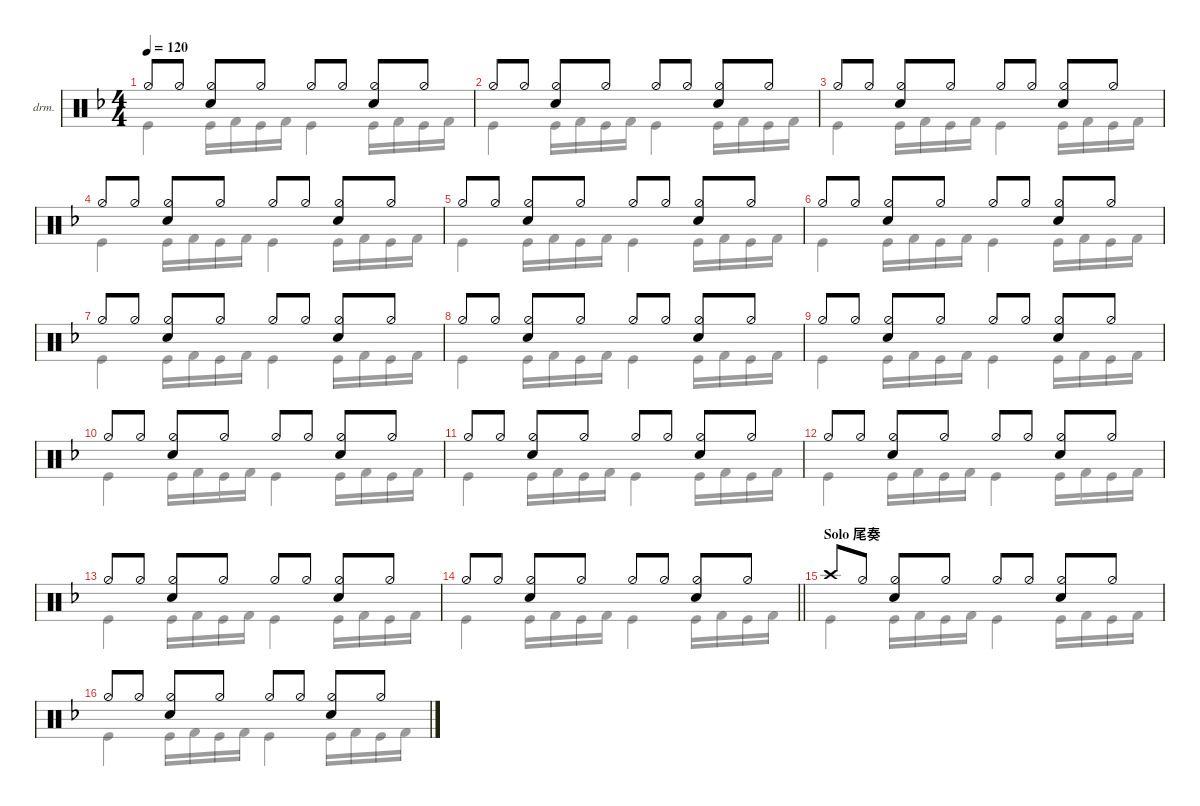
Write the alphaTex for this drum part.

\defaultSystemsLayout 4
\hideDynamics
\bracketExtendMode nobrackets
\firstSystemTrackNameOrientation horizontal
\track ("Drumkit" "drm.") {mute instrument percussion}
\staff {score}
\articulation defaults
\voice
\ts (4 4)
\tempo 120
\clef neutral
\ks dminor "Hi-Hat (half)"{acc forcenatural}.8{dy mf} "Hi-Hat (half)"{acc forcenatural}.8
("Hi-Hat (half)"{acc forcenatural} "Snare (hit) 2"{acc forcenatural}).8 "Hi-Hat (half)"{acc forcenatural}.8 "Hi-Hat (half)"{acc forcenatural}.8 "Hi-Hat (half)"{acc forcenatural}.8 ("Hi-Hat (half)"{acc forcenatural} "Snare (hit) 2"{acc forcenatural}).8 "Hi-Hat (half)"{acc forcenatural}.8 |
"Hi-Hat (half)"{acc forcenatural}.8 "Hi-Hat (half)"{acc forcenatural}.8 ("Hi-Hat (half)"{acc forcenatural} "Snare (hit) 2"{acc forcenatural}).8 "Hi-Hat (half)"{acc forcenatural}.8 "Hi-Hat (half)"{acc forcenatural}.8 "Hi-Hat (half)"{acc forcenatural}.8 ("Hi-Hat (half)"{acc forcenatural} "Snare (hit) 2"{acc forcenatural}).8 "Hi-Hat (half)"{acc forcenatural}.8 |
"Hi-Hat (half)"{acc forcenatural}.8 "Hi-Hat (half)"{acc forcenatural}.8 ("Hi-Hat (half)"{acc forcenatural} "Snare (hit) 2"{acc forcenatural}).8 "Hi-Hat (half)"{acc forcenatural}.8 "Hi-Hat (half)"{acc forcenatural}.8 "Hi-Hat (half)"{acc forcenatural}.8 ("Hi-Hat (half)"{acc forcenatural} "Snare (hit) 2"{acc forcenatural}).8 "Hi-Hat (half)"{acc forcenatural}.8 |
"Hi-Hat (half)"{acc forcenatural}.8 "Hi-Hat (half)"{acc forcenatural}.8 ("Hi-Hat (half)"{acc forcenatural} "Snare (hit) 2"{acc forcenatural}).8 "Hi-Hat (half)"{acc forcenatural}.8 "Hi-Hat (half)"{acc forcenatural}.8 "Hi-Hat (half)"{acc forcenatural}.8 ("Hi-Hat (half)"{acc forcenatural} "Snare (hit) 2"{acc forcenatural}).8 "Hi-Hat (half)"{acc forcenatural}.8 |
"Hi-Hat (half)"{acc forcenatural}.8 "Hi-Hat (half)"{acc forcenatural}.8 ("Hi-Hat (half)"{acc forcenatural} "Snare (hit) 2"{acc forcenatural}).8 "Hi-Hat (half)"{acc forcenatural}.8 "Hi-Hat (half)"{acc forcenatural}.8 "Hi-Hat (half)"{acc forcenatural}.8 ("Hi-Hat (half)"{acc forcenatural} "Snare (hit) 2"{acc forcenatural}).8 "Hi-Hat (half)"{acc forcenatural}.8 |
"Hi-Hat (half)"{acc forcenatural}.8 "Hi-Hat (half)"{acc forcenatural}.8 ("Hi-Hat (half)"{acc forcenatural} "Snare (hit) 2"{acc forcenatural}).8 "Hi-Hat (half)"{acc forcenatural}.8 "Hi-Hat (half)"{acc forcenatural}.8 "Hi-Hat (half)"{acc forcenatural}.8 ("Hi-Hat (half)"{acc forcenatural} "Snare (hit) 2"{acc forcenatural}).8 "Hi-Hat (half)"{acc forcenatural}.8 |
"Hi-Hat (half)"{acc forcenatural}.8 "Hi-Hat (half)"{acc forcenatural}.8 ("Hi-Hat (half)"{acc forcenatural} "Snare (hit) 2"{acc forcenatural}).8 "Hi-Hat (half)"{acc forcenatural}.8 "Hi-Hat (half)"{acc forcenatural}.8 "Hi-Hat (half)"{acc forcenatural}.8 ("Hi-Hat (half)"{acc forcenatural} "Snare (hit) 2"{acc forcenatural}).8 "Hi-Hat (half)"{acc forcenatural}.8 |
"Hi-Hat (half)"{acc forcenatural}.8 "Hi-Hat (half)"{acc forcenatural}.8 ("Hi-Hat (half)"{acc forcenatural} "Snare (hit) 2"{acc forcenatural}).8 "Hi-Hat (half)"{acc forcenatural}.8 "Hi-Hat (half)"{acc forcenatural}.8 "Hi-Hat (half)"{acc forcenatural}.8 ("Hi-Hat (half)"{acc forcenatural} "Snare (hit) 2"{acc forcenatural}).8 "Hi-Hat (half)"{acc forcenatural}.8 |
"Hi-Hat (half)"{acc forcenatural}.8 "Hi-Hat (half)"{acc forcenatural}.8 ("Hi-Hat (half)"{acc forcenatural} "Snare (hit) 2"{acc forcenatural}).8 "Hi-Hat (half)"{acc forcenatural}.8 "Hi-Hat (half)"{acc forcenatural}.8 "Hi-Hat (half)"{acc forcenatural}.8 ("Hi-Hat (half)"{acc forcenatural} "Snare (hit) 2"{acc forcenatural}).8 "Hi-Hat (half)"{acc forcenatural}.8 |
"Hi-Hat (half)"{acc forcenatural}.8 "Hi-Hat (half)"{acc forcenatural}.8 ("Hi-Hat (half)"{acc forcenatural} "Snare (hit) 2"{acc forcenatural}).8 "Hi-Hat (half)"{acc forcenatural}.8 "Hi-Hat (half)"{acc forcenatural}.8 "Hi-Hat (half)"{acc forcenatural}.8 ("Hi-Hat (half)"{acc forcenatural} "Snare (hit) 2"{acc forcenatural}).8 "Hi-Hat (half)"{acc forcenatural}.8 |
"Hi-Hat (half)"{acc forcenatural}.8 "Hi-Hat (half)"{acc forcenatural}.8 ("Hi-Hat (half)"{acc forcenatural} "Snare (hit) 2"{acc forcenatural}).8 "Hi-Hat (half)"{acc forcenatural}.8 "Hi-Hat (half)"{acc forcenatural}.8 "Hi-Hat (half)"{acc forcenatural}.8 ("Hi-Hat (half)"{acc forcenatural} "Snare (hit) 2"{acc forcenatural}).8 "Hi-Hat (half)"{acc forcenatural}.8 |
"Hi-Hat (half)"{acc forcenatural}.8 "Hi-Hat (half)"{acc forcenatural}.8 ("Hi-Hat (half)"{acc forcenatural} "Snare (hit) 2"{acc forcenatural}).8 "Hi-Hat (half)"{acc forcenatural}.8 "Hi-Hat (half)"{acc forcenatural}.8 "Hi-Hat (half)"{acc forcenatural}.8 ("Hi-Hat (half)"{acc forcenatural} "Snare (hit) 2"{acc forcenatural}).8 "Hi-Hat (half)"{acc forcenatural}.8 |
"Hi-Hat (half)"{acc forcenatural}.8 "Hi-Hat (half)"{acc forcenatural}.8 ("Hi-Hat (half)"{acc forcenatural} "Snare (hit) 2"{acc forcenatural}).8 "Hi-Hat (half)"{acc forcenatural}.8 "Hi-Hat (half)"{acc forcenatural}.8 "Hi-Hat (half)"{acc forcenatural}.8 ("Hi-Hat (half)"{acc forcenatural} "Snare (hit) 2"{acc forcenatural}).8 "Hi-Hat (half)"{acc forcenatural}.8 |
\barLineRight lightlight "Hi-Hat (half)"{acc forcenatural}.8 "Hi-Hat (half)"{acc forcenatural}.8
("Hi-Hat (half)"{acc forcenatural} "Snare (hit) 2"{acc forcenatural}).8 "Hi-Hat (half)"{acc forcenatural}.8 "Hi-Hat (half)"{acc forcenatural}.8 "Hi-Hat (half)"{acc forcenatural}.8 ("Hi-Hat (half)"{acc forcenatural} "Snare (hit) 2"{acc forcenatural}).8 "Hi-Hat (half)"{acc forcenatural}.8 |
\section ("" "Solo 尾奏")
"Crash high (hit)"{acc forcenatural}.8 "Hi-Hat (half)"{acc forcenatural}.8 ("Hi-Hat (half)"{acc forcenatural} "Snare (hit) 2"{acc forcenatural}).8 "Hi-Hat (half)"{acc forcenatural}.8 "Hi-Hat (half)"{acc forcenatural}.8 "Hi-Hat (half)"{acc forcenatural}.8 ("Hi-Hat (half)"{acc forcenatural} "Snare (hit) 2"{acc forcenatural}).8 "Hi-Hat (half)"{acc forcenatural}.8 |
"Hi-Hat (half)"{acc forcenatural}.8 "Hi-Hat (half)"{acc forcenatural}.8 ("Hi-Hat (half)"{acc forcenatural} "Snare (hit) 2"{acc forcenatural}).8 "Hi-Hat (half)"{acc forcenatural}.8 "Hi-Hat (half)"{acc forcenatural}.8 "Hi-Hat (half)"{acc forcenatural}.8 ("Hi-Hat (half)"{acc forcenatural} "Snare (hit) 2"{acc forcenatural}).8 "Hi-Hat (half)"{acc forcenatural}.8
\voice
\clef neutral
\ottava regular
\simile none
\ks dminor "Kick (hit)"{acc forcenatural}.4{dy mf} "Kick (hit)"{acc forcenatural}.16 "Kick (hit) 2"{acc forcenatural}.16 "Kick (hit)"{acc forcenatural}.16 "Kick (hit) 2"{acc forcenatural}.16 "Kick (hit)"{acc forcenatural}.4 "Kick (hit)"{acc forcenatural}.16 "Kick (hit) 2"{acc forcenatural}.16 "Kick (hit)"{acc forcenatural}.16 "Kick (hit) 2"{acc forcenatural}.16
|
"Kick (hit)"{acc forcenatural}.4 "Kick (hit)"{acc forcenatural}.16 "Kick (hit) 2"{acc forcenatural}.16 "Kick (hit)"{acc forcenatural}.16 "Kick (hit) 2"{acc forcenatural}.16 "Kick (hit)"{acc forcenatural}.4 "Kick (hit)"{acc forcenatural}.16 "Kick (hit) 2"{acc forcenatural}.16 "Kick (hit)"{acc forcenatural}.16 "Kick (hit) 2"{acc forcenatural}.16 |
"Kick (hit)"{acc forcenatural}.4 "Kick (hit)"{acc forcenatural}.16 "Kick (hit) 2"{acc forcenatural}.16 "Kick (hit)"{acc forcenatural}.16 "Kick (hit) 2"{acc forcenatural}.16 "Kick (hit)"{acc forcenatural}.4 "Kick (hit)"{acc forcenatural}.16 "Kick (hit) 2"{acc forcenatural}.16 "Kick (hit)"{acc forcenatural}.16 "Kick (hit) 2"{acc forcenatural}.16 |
"Kick (hit)"{acc forcenatural}.4 "Kick (hit)"{acc forcenatural}.16 "Kick (hit) 2"{acc forcenatural}.16 "Kick (hit)"{acc forcenatural}.16 "Kick (hit) 2"{acc forcenatural}.16 "Kick (hit)"{acc forcenatural}.4 "Kick (hit)"{acc forcenatural}.16 "Kick (hit) 2"{acc forcenatural}.16 "Kick (hit)"{acc forcenatural}.16 "Kick (hit) 2"{acc forcenatural}.16 |
"Kick (hit)"{acc forcenatural}.4 "Kick (hit)"{acc forcenatural}.16 "Kick (hit) 2"{acc forcenatural}.16 "Kick (hit)"{acc forcenatural}.16 "Kick (hit) 2"{acc forcenatural}.16 "Kick (hit)"{acc forcenatural}.4 "Kick (hit)"{acc forcenatural}.16 "Kick (hit) 2"{acc forcenatural}.16 "Kick (hit)"{acc forcenatural}.16 "Kick (hit) 2"{acc forcenatural}.16 |
"Kick (hit)"{acc forcenatural}.4 "Kick (hit)"{acc forcenatural}.16 "Kick (hit) 2"{acc forcenatural}.16 "Kick (hit)"{acc forcenatural}.16 "Kick (hit) 2"{acc forcenatural}.16 "Kick (hit)"{acc forcenatural}.4 "Kick (hit)"{acc forcenatural}.16 "Kick (hit) 2"{acc forcenatural}.16 "Kick (hit)"{acc forcenatural}.16 "Kick (hit) 2"{acc forcenatural}.16 |
"Kick (hit)"{acc forcenatural}.4 "Kick (hit)"{acc forcenatural}.16 "Kick (hit) 2"{acc forcenatural}.16 "Kick (hit)"{acc forcenatural}.16 "Kick (hit) 2"{acc forcenatural}.16 "Kick (hit)"{acc forcenatural}.4 "Kick (hit)"{acc forcenatural}.16 "Kick (hit) 2"{acc forcenatural}.16 "Kick (hit)"{acc forcenatural}.16 "Kick (hit) 2"{acc forcenatural}.16 |
"Kick (hit)"{acc forcenatural}.4 "Kick (hit)"{acc forcenatural}.16 "Kick (hit) 2"{acc forcenatural}.16 "Kick (hit)"{acc forcenatural}.16 "Kick (hit) 2"{acc forcenatural}.16 "Kick (hit)"{acc forcenatural}.4 "Kick (hit)"{acc forcenatural}.16 "Kick (hit) 2"{acc forcenatural}.16 "Kick (hit)"{acc forcenatural}.16 "Kick (hit) 2"{acc forcenatural}.16 |
"Kick (hit)"{acc forcenatural}.4 "Kick (hit)"{acc forcenatural}.16 "Kick (hit) 2"{acc forcenatural}.16 "Kick (hit)"{acc forcenatural}.16 "Kick (hit) 2"{acc forcenatural}.16 "Kick (hit)"{acc forcenatural}.4 "Kick (hit)"{acc forcenatural}.16 "Kick (hit) 2"{acc forcenatural}.16 "Kick (hit)"{acc forcenatural}.16 "Kick (hit) 2"{acc forcenatural}.16 |
"Kick (hit)"{acc forcenatural}.4 "Kick (hit)"{acc forcenatural}.16 "Kick (hit) 2"{acc forcenatural}.16 "Kick (hit)"{acc forcenatural}.16 "Kick (hit) 2"{acc forcenatural}.16 "Kick (hit)"{acc forcenatural}.4 "Kick (hit)"{acc forcenatural}.16 "Kick (hit) 2"{acc forcenatural}.16 "Kick (hit)"{acc forcenatural}.16 "Kick (hit) 2"{acc forcenatural}.16 |
"Kick (hit)"{acc forcenatural}.4 "Kick (hit)"{acc forcenatural}.16 "Kick (hit) 2"{acc forcenatural}.16 "Kick (hit)"{acc forcenatural}.16 "Kick (hit) 2"{acc forcenatural}.16 "Kick (hit)"{acc forcenatural}.4 "Kick (hit)"{acc forcenatural}.16 "Kick (hit) 2"{acc forcenatural}.16 "Kick (hit)"{acc forcenatural}.16 "Kick (hit) 2"{acc forcenatural}.16 |
"Kick (hit)"{acc forcenatural}.4 "Kick (hit)"{acc forcenatural}.16 "Kick (hit) 2"{acc forcenatural}.16 "Kick (hit)"{acc forcenatural}.16 "Kick (hit) 2"{acc forcenatural}.16 "Kick (hit)"{acc forcenatural}.4 "Kick (hit)"{acc forcenatural}.16 "Kick (hit) 2"{acc forcenatural}.16 "Kick (hit)"{acc forcenatural}.16 "Kick (hit) 2"{acc forcenatural}.16 |
"Kick (hit)"{acc forcenatural}.4 "Kick (hit)"{acc forcenatural}.16 "Kick (hit) 2"{acc forcenatural}.16 "Kick (hit)"{acc forcenatural}.16 "Kick (hit) 2"{acc forcenatural}.16 "Kick (hit)"{acc forcenatural}.4 "Kick (hit)"{acc forcenatural}.16 "Kick (hit) 2"{acc forcenatural}.16 "Kick (hit)"{acc forcenatural}.16 "Kick (hit) 2"{acc forcenatural}.16 |
\barLineRight lightlight "Kick (hit)"{acc forcenatural}.4 "Kick (hit)"{acc forcenatural}.16 "Kick (hit) 2"{acc forcenatural}.16 "Kick (hit)"{acc forcenatural}.16 "Kick (hit) 2"{acc forcenatural}.16 "Kick (hit)"{acc forcenatural}.4 "Kick (hit)"{acc forcenatural}.16 "Kick (hit) 2"{acc forcenatural}.16 "Kick (hit)"{acc forcenatural}.16 "Kick (hit) 2"{acc forcenatural}.16
|
"Kick (hit)"{acc forcenatural}.4 "Kick (hit)"{acc forcenatural}.16 "Kick (hit) 2"{acc forcenatural}.16 "Kick (hit)"{acc forcenatural}.16 "Kick (hit) 2"{acc forcenatural}.16 "Kick (hit)"{acc forcenatural}.4 "Kick (hit)"{acc forcenatural}.16 "Kick (hit) 2"{acc forcenatural}.16 "Kick (hit)"{acc forcenatural}.16 "Kick (hit) 2"{acc forcenatural}.16 |
"Kick (hit)"{acc forcenatural}.4 "Kick (hit)"{acc forcenatural}.16 "Kick (hit) 2"{acc forcenatural}.16 "Kick (hit)"{acc forcenatural}.16 "Kick (hit) 2"{acc forcenatural}.16 "Kick (hit)"{acc forcenatural}.4 "Kick (hit)"{acc forcenatural}.16 "Kick (hit) 2"{acc forcenatural}.16 "Kick (hit)"{acc forcenatural}.16 "Kick (hit) 2"{acc forcenatural}.16
